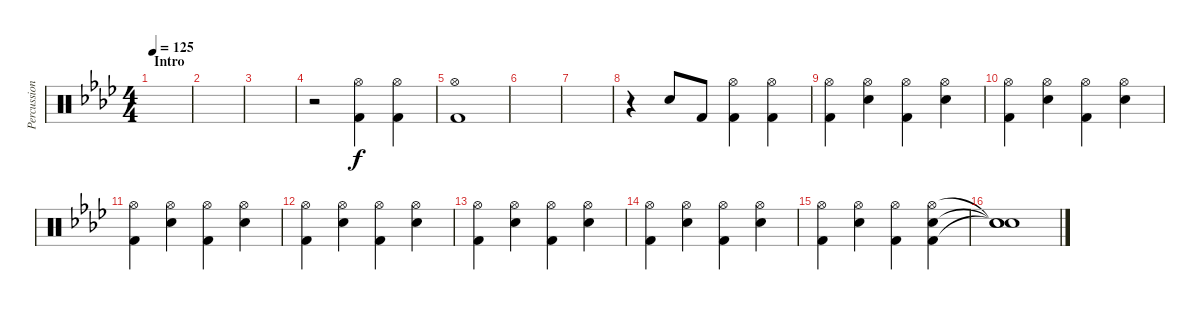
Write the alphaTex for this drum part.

\track ("Percussion" "Percussion") {instrument percussion}
\staff {score}
\articulation defaults
\ts (4 4)
\section ("" "Intro")
\tempo 125
\clef neutral
\ks fminor
|
|
|
r.2 ("Hi-Hat (open)" "Kick (hit) 2").4 ("Hi-Hat (open)" "Kick (hit) 2").4 |
("Hi-Hat (open)" "Kick (hit) 2").1 |
|
|
r.4 "Snare (hit) 2".8 "Kick (hit) 2".8 ("Hi-Hat (open)" "Kick (hit) 2").4 ("Hi-Hat (open)" "Kick (hit) 2").4 |
("Hi-Hat (open)" "Kick (hit) 2").4 ("Hi-Hat (open)" "Snare (hit) 2").4 ("Hi-Hat (open)" "Kick (hit) 2").4 ("Hi-Hat (open)" "Snare (hit) 2").4 |
("Hi-Hat (open)" "Kick (hit) 2").4 ("Hi-Hat (open)" "Snare (hit) 2").4 ("Hi-Hat (open)" "Kick (hit) 2").4 ("Hi-Hat (open)" "Snare (hit) 2").4 |
("Hi-Hat (open)" "Kick (hit) 2").4 ("Hi-Hat (open)" "Snare (hit) 2").4 ("Hi-Hat (open)" "Kick (hit) 2").4 ("Hi-Hat (open)" "Snare (hit) 2").4 |
("Hi-Hat (open)" "Kick (hit) 2").4 ("Hi-Hat (open)" "Snare (hit) 2").4 ("Hi-Hat (open)" "Kick (hit) 2").4 ("Hi-Hat (open)" "Snare (hit) 2").4 |
("Hi-Hat (open)" "Kick (hit) 2").4 ("Hi-Hat (open)" "Snare (hit) 2").4 ("Hi-Hat (open)" "Kick (hit) 2").4 ("Hi-Hat (open)" "Snare (hit) 2").4 |
("Hi-Hat (open)" "Kick (hit) 2").4 ("Hi-Hat (open)" "Snare (hit) 2").4 ("Hi-Hat (open)" "Kick (hit) 2").4 ("Hi-Hat (open)" "Snare (hit) 2").4 |
("Hi-Hat (open)" "Kick (hit) 2").4 ("Hi-Hat (open)" "Snare (hit) 2").4 ("Hi-Hat (open)" "Kick (hit) 2").4 ("Hi-Hat (open)" "Snare (hit) 2" "Kick (hit) 2").4 |
("Snare (hit)"{t} "Snare (hit)"{t} "Snare (hit)"{t}).1
